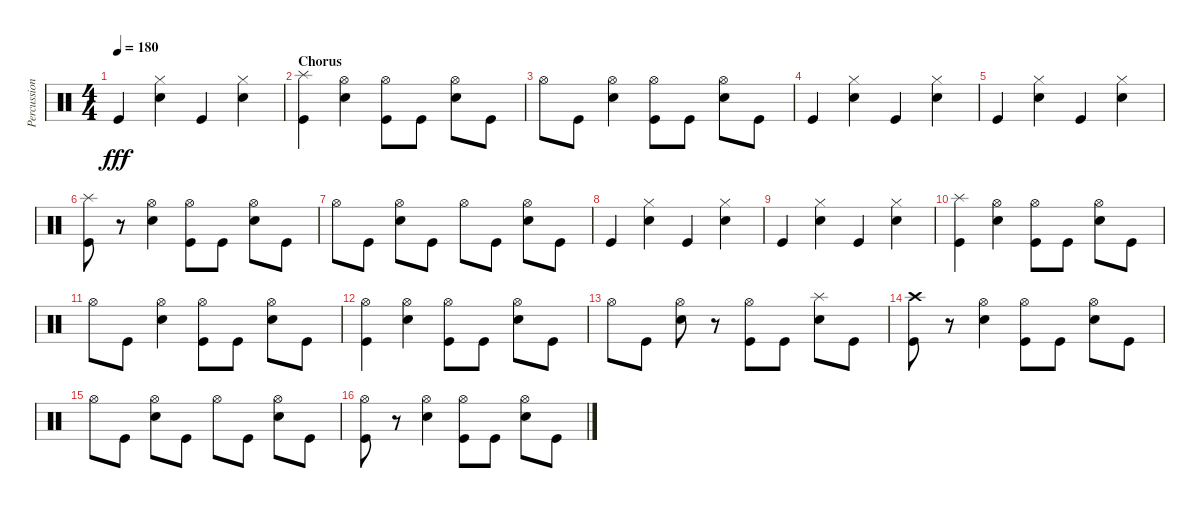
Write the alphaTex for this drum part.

\track ("Percussion" "Percussion") {instrument percussion}
\staff {score}
\articulation defaults
\ts (4 4)
\tempo 180
\clef neutral
\ks c "Kick (hit)".4{dy fff}
("Hi-Hat (closed)" "Snare (hit) 2").4 "Kick (hit)".4 ("Hi-Hat (closed)" "Snare (hit) 2").4 |
\section ("" "Chorus")
("Splash (hit)" "Kick (hit)").4 ("Hi-Hat (open)" "Snare (hit) 2").4 ("Hi-Hat (open)" "Kick (hit)").8 "Kick (hit)".8 ("Hi-Hat (open)" "Snare (hit) 2").8 "Kick (hit)".8 |
"Hi-Hat (open)".8 "Kick (hit)".8 ("Hi-Hat (open)" "Snare (hit) 2").4 ("Hi-Hat (open)" "Kick (hit)").8 "Kick (hit)".8 ("Hi-Hat (open)" "Snare (hit) 2").8 "Kick (hit)".8 |
"Kick (hit)".4 ("Hi-Hat (closed)" "Snare (hit) 2").4 "Kick (hit)".4 ("Hi-Hat (closed)" "Snare (hit) 2").4 |
"Kick (hit)".4 ("Hi-Hat (closed)" "Snare (hit) 2").4 "Kick (hit)".4 ("Hi-Hat (closed)" "Snare (hit) 2").4 |
("Splash (hit)" "Kick (hit)").8 r.8 ("Hi-Hat (open)" "Snare (hit) 2").4 ("Hi-Hat (open)" "Kick (hit)").8 "Kick (hit)".8 ("Hi-Hat (open)" "Snare (hit) 2").8 "Kick (hit)".8 |
"Hi-Hat (open)".8 "Kick (hit)".8 ("Hi-Hat (open)" "Snare (hit) 2").8 "Kick (hit)".8 "Hi-Hat (open)".8 "Kick (hit)".8 ("Hi-Hat (open)" "Snare (hit) 2").8 "Kick (hit)".8 |
"Kick (hit)".4 ("Hi-Hat (closed)" "Snare (hit) 2").4 "Kick (hit)".4 ("Hi-Hat (closed)" "Snare (hit) 2").4 |
"Kick (hit)".4 ("Hi-Hat (closed)" "Snare (hit) 2").4 "Kick (hit)".4 ("Hi-Hat (closed)" "Snare (hit) 2").4 |
("Splash (hit)" "Kick (hit)").4 ("Hi-Hat (open)" "Snare (hit) 2").4 ("Hi-Hat (open)" "Kick (hit)").8 "Kick (hit)".8 ("Hi-Hat (open)" "Snare (hit) 2").8 "Kick (hit)".8 |
"Hi-Hat (open)".8 "Kick (hit)".8 ("Hi-Hat (open)" "Snare (hit) 2").4 ("Hi-Hat (open)" "Kick (hit)").8 "Kick (hit)".8 ("Hi-Hat (open)" "Snare (hit) 2").8 "Kick (hit)".8 |
("Hi-Hat (open)" "Kick (hit)").4 ("Hi-Hat (open)" "Snare (hit) 2").4 ("Hi-Hat (open)" "Kick (hit)").8 "Kick (hit)".8 ("Hi-Hat (open)" "Snare (hit) 2").8 "Kick (hit)".8 |
"Hi-Hat (open)".8 "Kick (hit)".8 ("Hi-Hat (open)" "Snare (hit) 2").8 r.8 ("Hi-Hat (open)" "Kick (hit)").8 "Kick (hit)".8 ("Splash (hit)" "Snare (hit) 2").8 "Kick (hit)".8 |
("Crash high (hit)" "Kick (hit)").8 r.8 ("Hi-Hat (open)" "Snare (hit) 2").4 ("Hi-Hat (open)" "Kick (hit)").8 "Kick (hit)".8 ("Hi-Hat (open)" "Snare (hit) 2").8 "Kick (hit)".8 |
"Hi-Hat (open)".8 "Kick (hit)".8 ("Hi-Hat (open)" "Snare (hit) 2").8 "Kick (hit)".8 "Hi-Hat (open)".8 "Kick (hit)".8 ("Hi-Hat (open)" "Snare (hit) 2").8 "Kick (hit)".8 |
("Hi-Hat (open)" "Kick (hit)").8 r.8 ("Hi-Hat (open)" "Snare (hit) 2").4 ("Hi-Hat (open)" "Kick (hit)").8 "Kick (hit)".8 ("Hi-Hat (open)" "Snare (hit) 2").8 "Kick (hit)".8
